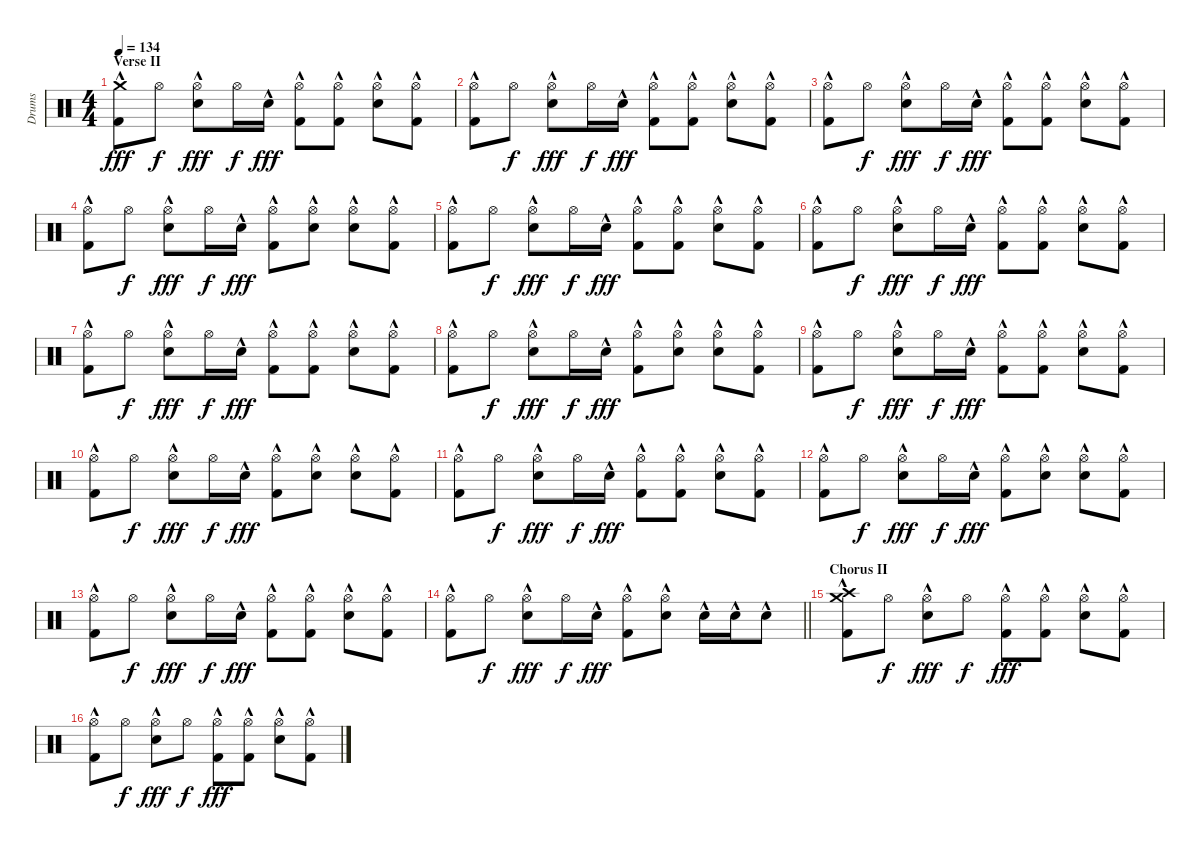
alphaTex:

\track ("Drums" "Drums") {instrument percussion}
\staff {score}
\articulation defaults
\ts (4 4)
\section ("" "Verse II")
\tempo 134
\clef neutral
\ks c
("Crash medium (hit)" "Kick (hit) 2"{hac}).8{dy fff} "Hi-Hat (open)".8{dy f} ("Hi-Hat (open)" "Snare (hit) 2"{hac}).8{dy fff} "Hi-Hat (open)".16{dy f} "Snare (hit) 2"{hac}.16{dy fff} ("Hi-Hat (open)" "Kick (hit) 2"{hac}).8 ("Hi-Hat (open)" "Kick (hit) 2"{hac}).8 ("Hi-Hat (open)" "Snare (hit) 2"{hac}).8 ("Hi-Hat (open)" "Kick (hit) 2"{hac}).8 |
("Hi-Hat (open)" "Kick (hit) 2"{hac}).8 "Hi-Hat (open)".8{dy f} ("Hi-Hat (open)" "Snare (hit) 2"{hac}).8{dy fff} "Hi-Hat (open)".16{dy f} "Snare (hit) 2"{hac}.16{dy fff} ("Hi-Hat (open)" "Kick (hit) 2"{hac}).8 ("Hi-Hat (open)" "Kick (hit) 2"{hac}).8 ("Hi-Hat (open)" "Snare (hit) 2"{hac}).8 ("Hi-Hat (open)" "Kick (hit) 2"{hac}).8 |
("Hi-Hat (open)" "Kick (hit) 2"{hac}).8 "Hi-Hat (open)".8{dy f} ("Hi-Hat (open)" "Snare (hit) 2"{hac}).8{dy fff} "Hi-Hat (open)".16{dy f} "Snare (hit) 2"{hac}.16{dy fff} ("Hi-Hat (open)" "Kick (hit) 2"{hac}).8 ("Hi-Hat (open)" "Kick (hit) 2"{hac}).8 ("Hi-Hat (open)" "Snare (hit) 2"{hac}).8 ("Hi-Hat (open)" "Kick (hit) 2"{hac}).8 |
("Hi-Hat (open)" "Kick (hit) 2"{hac}).8 "Hi-Hat (open)".8{dy f} ("Hi-Hat (open)" "Snare (hit) 2"{hac}).8{dy fff} "Hi-Hat (open)".16{dy f} "Snare (hit) 2"{hac}.16{dy fff} ("Hi-Hat (open)" "Kick (hit) 2"{hac}).8 ("Hi-Hat (open)"{hac} "Snare (hit) 2"{hac}).8 ("Hi-Hat (open)"{hac} "Snare (hit) 2"{hac}).8 ("Hi-Hat (open)" "Kick (hit) 2"{hac}).8 |
("Hi-Hat (open)" "Kick (hit) 2"{hac}).8 "Hi-Hat (open)".8{dy f} ("Hi-Hat (open)" "Snare (hit) 2"{hac}).8{dy fff} "Hi-Hat (open)".16{dy f} "Snare (hit) 2"{hac}.16{dy fff} ("Hi-Hat (open)" "Kick (hit) 2"{hac}).8 ("Hi-Hat (open)" "Kick (hit) 2"{hac}).8 ("Hi-Hat (open)" "Snare (hit) 2"{hac}).8 ("Hi-Hat (open)" "Kick (hit) 2"{hac}).8 |
("Hi-Hat (open)" "Kick (hit) 2"{hac}).8 "Hi-Hat (open)".8{dy f} ("Hi-Hat (open)" "Snare (hit) 2"{hac}).8{dy fff} "Hi-Hat (open)".16{dy f} "Snare (hit) 2"{hac}.16{dy fff} ("Hi-Hat (open)" "Kick (hit) 2"{hac}).8 ("Hi-Hat (open)" "Kick (hit) 2"{hac}).8 ("Hi-Hat (open)" "Snare (hit) 2"{hac}).8 ("Hi-Hat (open)" "Kick (hit) 2"{hac}).8 |
("Hi-Hat (open)" "Kick (hit) 2"{hac}).8 "Hi-Hat (open)".8{dy f} ("Hi-Hat (open)" "Snare (hit) 2"{hac}).8{dy fff} "Hi-Hat (open)".16{dy f} "Snare (hit) 2"{hac}.16{dy fff} ("Hi-Hat (open)" "Kick (hit) 2"{hac}).8 ("Hi-Hat (open)" "Kick (hit) 2"{hac}).8 ("Hi-Hat (open)" "Snare (hit) 2"{hac}).8 ("Hi-Hat (open)" "Kick (hit) 2"{hac}).8 |
("Hi-Hat (open)" "Kick (hit) 2"{hac}).8 "Hi-Hat (open)".8{dy f} ("Hi-Hat (open)" "Snare (hit) 2"{hac}).8{dy fff} "Hi-Hat (open)".16{dy f} "Snare (hit) 2"{hac}.16{dy fff} ("Hi-Hat (open)" "Kick (hit) 2"{hac}).8 ("Hi-Hat (open)"{hac} "Snare (hit) 2"{hac}).8 ("Hi-Hat (open)"{hac} "Snare (hit) 2"{hac}).8 ("Hi-Hat (open)" "Kick (hit) 2"{hac}).8 |
("Hi-Hat (open)" "Kick (hit) 2"{hac}).8 "Hi-Hat (open)".8{dy f} ("Hi-Hat (open)" "Snare (hit) 2"{hac}).8{dy fff} "Hi-Hat (open)".16{dy f} "Snare (hit) 2"{hac}.16{dy fff} ("Hi-Hat (open)" "Kick (hit) 2"{hac}).8 ("Hi-Hat (open)" "Kick (hit) 2"{hac}).8 ("Hi-Hat (open)" "Snare (hit) 2"{hac}).8 ("Hi-Hat (open)" "Kick (hit) 2"{hac}).8 |
("Hi-Hat (open)" "Kick (hit) 2"{hac}).8 "Hi-Hat (open)".8{dy f} ("Hi-Hat (open)" "Snare (hit) 2"{hac}).8{dy fff} "Hi-Hat (open)".16{dy f} "Snare (hit) 2"{hac}.16{dy fff} ("Hi-Hat (open)" "Kick (hit) 2"{hac}).8 ("Hi-Hat (open)" "Snare (hit) 2"{hac}).8 ("Hi-Hat (open)" "Snare (hit) 2"{hac}).8 ("Hi-Hat (open)" "Kick (hit) 2"{hac}).8 |
("Hi-Hat (open)" "Kick (hit) 2"{hac}).8 "Hi-Hat (open)".8{dy f} ("Hi-Hat (open)" "Snare (hit) 2"{hac}).8{dy fff} "Hi-Hat (open)".16{dy f} "Snare (hit) 2"{hac}.16{dy fff} ("Hi-Hat (open)" "Kick (hit) 2"{hac}).8 ("Hi-Hat (open)" "Kick (hit) 2"{hac}).8 ("Hi-Hat (open)" "Snare (hit) 2"{hac}).8 ("Hi-Hat (open)" "Kick (hit) 2"{hac}).8 |
("Hi-Hat (open)" "Kick (hit) 2"{hac}).8 "Hi-Hat (open)".8{dy f} ("Hi-Hat (open)" "Snare (hit) 2"{hac}).8{dy fff} "Hi-Hat (open)".16{dy f} "Snare (hit) 2"{hac}.16{dy fff} ("Hi-Hat (open)" "Kick (hit) 2"{hac}).8 ("Hi-Hat (open)"{hac} "Snare (hit) 2"{hac}).8 ("Hi-Hat (open)"{hac} "Snare (hit) 2"{hac}).8 ("Hi-Hat (open)" "Kick (hit) 2"{hac}).8 |
("Hi-Hat (open)" "Kick (hit) 2"{hac}).8 "Hi-Hat (open)".8{dy f} ("Hi-Hat (open)" "Snare (hit) 2"{hac}).8{dy fff} "Hi-Hat (open)".16{dy f} "Snare (hit) 2"{hac}.16{dy fff} ("Hi-Hat (open)" "Kick (hit) 2"{hac}).8 ("Hi-Hat (open)" "Kick (hit) 2"{hac}).8 ("Hi-Hat (open)" "Snare (hit) 2"{hac}).8 ("Hi-Hat (open)" "Kick (hit) 2"{hac}).8 |
\barLineRight lightlight
("Hi-Hat (open)" "Kick (hit) 2"{hac}).8 "Hi-Hat (open)".8{dy f} ("Hi-Hat (open)" "Snare (hit) 2"{hac}).8{dy fff} "Hi-Hat (open)".16{dy f} "Snare (hit) 2"{hac}.16{dy fff} ("Hi-Hat (open)" "Kick (hit) 2"{hac}).8 ("Hi-Hat (open)"{hac} "Snare (hit) 2"{hac}).8 "Snare (hit) 2"{hac}.16 "Snare (hit) 2"{hac}.16 "Snare (hit) 2"{hac}.8 |
\section ("" "Chorus II")
("Crash medium (hit)" "Crash high (hit)" "Kick (hit) 2"{hac}).8 "Hi-Hat (open)".8{dy f} ("Hi-Hat (open)" "Snare (hit) 2"{hac}).8{dy fff} "Hi-Hat (open)".8{dy f} ("Hi-Hat (open)" "Kick (hit) 2"{hac}).8{dy fff} ("Hi-Hat (open)" "Kick (hit) 2"{hac}).8 ("Hi-Hat (open)" "Snare (hit) 2"{hac}).8 ("Hi-Hat (open)" "Kick (hit) 2"{hac}).8 |
("Hi-Hat (open)" "Kick (hit) 2"{hac}).8 "Hi-Hat (open)".8{dy f} ("Hi-Hat (open)" "Snare (hit) 2"{hac}).8{dy fff} "Hi-Hat (open)".8{dy f} ("Hi-Hat (open)" "Kick (hit) 2"{hac}).8{dy fff} ("Hi-Hat (open)" "Kick (hit) 2"{hac}).8 ("Hi-Hat (open)" "Snare (hit) 2"{hac}).8 ("Hi-Hat (open)" "Kick (hit) 2"{hac}).8
